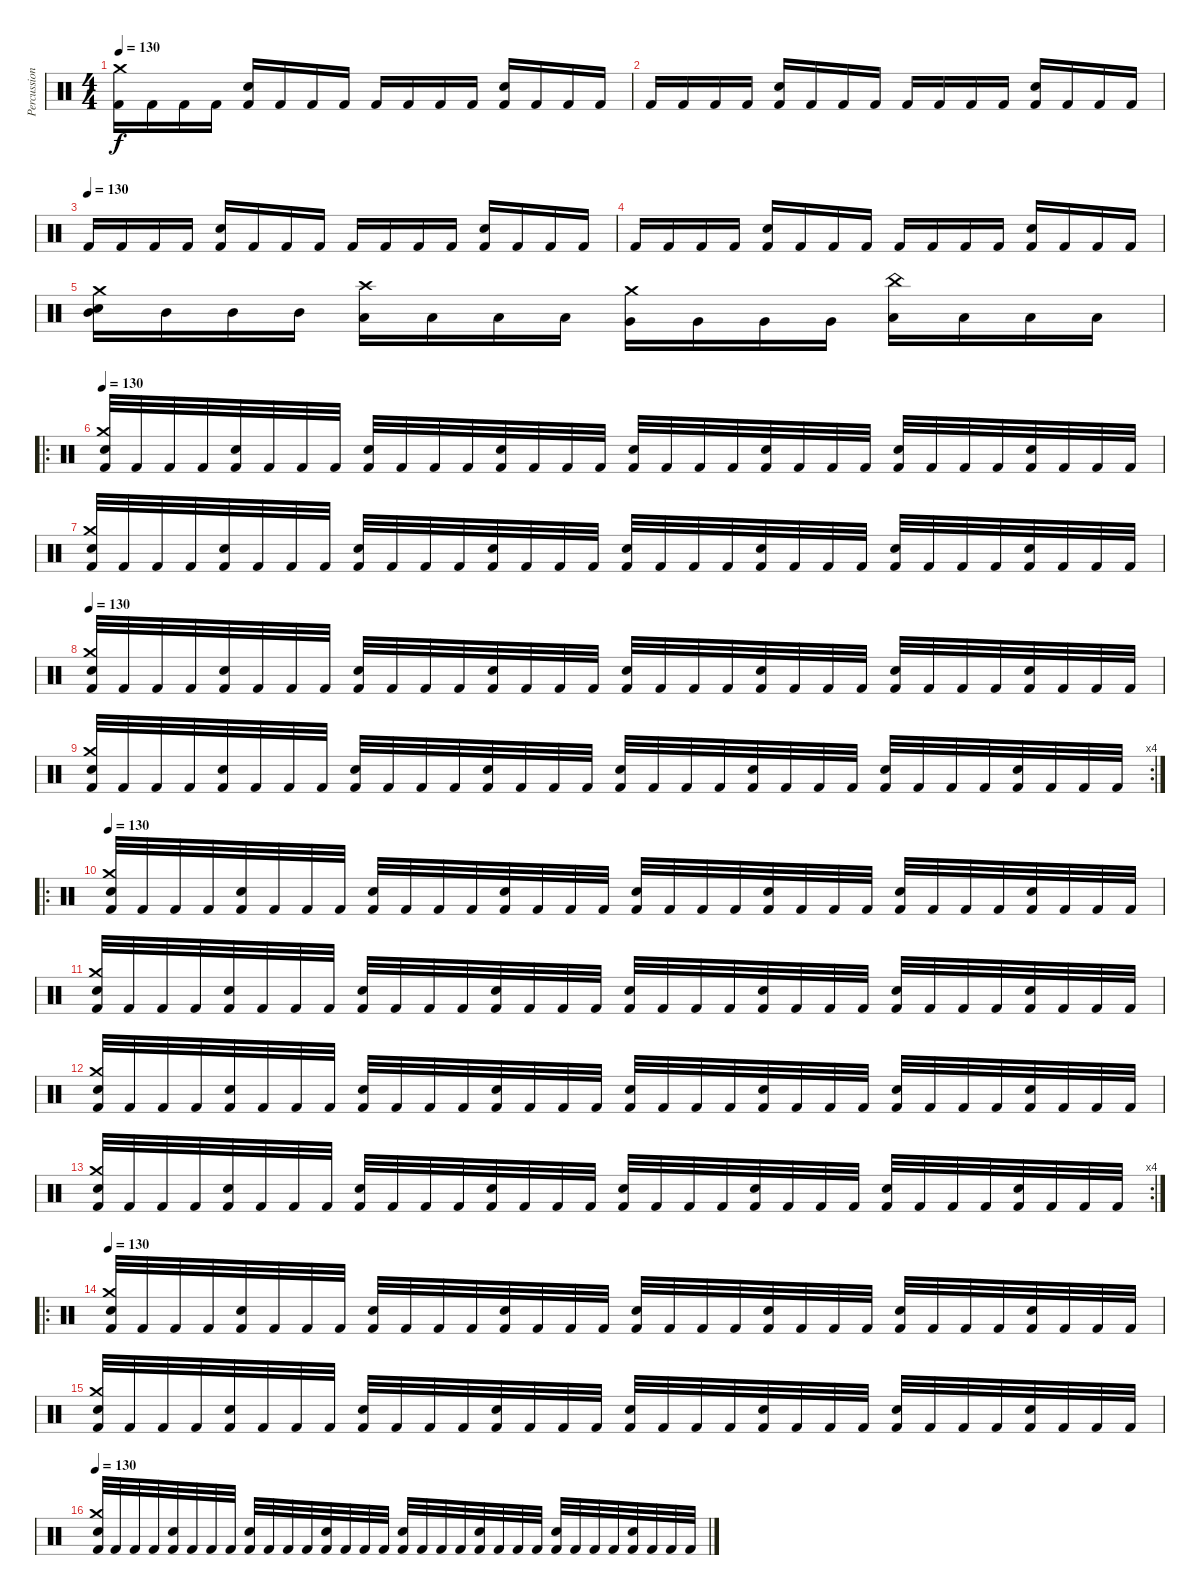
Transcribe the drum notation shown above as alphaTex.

\track ("Percussion" "Percussion") {instrument percussion}
\staff {score}
\articulation defaults
\ts (4 4)
\tempo 130
\clef neutral
\ks c
("Kick (hit) 2" "Crash medium (hit)").16{dy f} "Kick (hit) 2".16 "Kick (hit) 2".16 "Kick (hit) 2".16 ("Kick (hit) 2" "Snare (hit) 2").16 "Kick (hit) 2".16 "Kick (hit) 2".16 "Kick (hit) 2".16 "Kick (hit) 2".16 "Kick (hit) 2".16 "Kick (hit) 2".16 "Kick (hit) 2".16 ("Kick (hit) 2" "Snare (hit) 2").16 "Kick (hit) 2".16 "Kick (hit) 2".16 "Kick (hit) 2".16 |
"Kick (hit) 2".16 "Kick (hit) 2".16 "Kick (hit) 2".16 "Kick (hit) 2".16 ("Kick (hit) 2" "Snare (hit) 2").16 "Kick (hit) 2".16 "Kick (hit) 2".16 "Kick (hit) 2".16 "Kick (hit) 2".16 "Kick (hit) 2".16 "Kick (hit) 2".16 "Kick (hit) 2".16 ("Kick (hit) 2" "Snare (hit) 2").16 "Kick (hit) 2".16 "Kick (hit) 2".16 "Kick (hit) 2".16 |
\tempo (130)
"Kick (hit) 2".16 "Kick (hit) 2".16 "Kick (hit) 2".16 "Kick (hit) 2".16 ("Kick (hit) 2" "Snare (hit) 2").16 "Kick (hit) 2".16 "Kick (hit) 2".16 "Kick (hit) 2".16 "Kick (hit) 2".16 "Kick (hit) 2".16 "Kick (hit) 2".16 "Kick (hit) 2".16 ("Kick (hit) 2" "Snare (hit) 2").16 "Kick (hit) 2".16 "Kick (hit) 2".16 "Kick (hit) 2".16 |
"Kick (hit) 2".16 "Kick (hit) 2".16 "Kick (hit) 2".16 "Kick (hit) 2".16 ("Kick (hit) 2" "Snare (hit) 2").16 "Kick (hit) 2".16 "Kick (hit) 2".16 "Kick (hit) 2".16 "Kick (hit) 2".16 "Kick (hit) 2".16 "Kick (hit) 2".16 "Kick (hit) 2".16 ("Kick (hit) 2" "Snare (hit) 2").16 "Kick (hit) 2".16 "Kick (hit) 2".16 "Kick (hit) 2".16 |
("Mid Tom (hit)" "Crash medium (hit)" "Snare (hit)").16 "Mid Tom (hit)".16 "Mid Tom (hit)".16 "Mid Tom (hit)".16 ("Low Tom (hit)" "Crash high (hit)").16 "Low Tom (hit)".16 "Low Tom (hit)".16 "Low Tom (hit)".16 ("Very Low Tom (hit)" "Crash medium (hit)").16 "Very Low Tom (hit)".16 "Very Low Tom (hit)".16 "Very Low Tom (hit)".16 ("Low Floor Tom (hit)" "China (hit)").16 "Low Floor Tom (hit)".16 "Low Floor Tom (hit)".16 "Low Floor Tom (hit)".16 |
\ro
\tempo 130
("Kick (hit) 2" "Crash medium (hit)" "Snare (hit) 2").32 "Kick (hit) 2".32 "Kick (hit) 2".32 "Kick (hit) 2".32 ("Kick (hit) 2" "Snare (hit) 2").32 "Kick (hit) 2".32 "Kick (hit) 2".32 "Kick (hit) 2".32 ("Kick (hit) 2" "Snare (hit) 2").32 "Kick (hit) 2".32 "Kick (hit) 2".32 "Kick (hit) 2".32 ("Kick (hit) 2" "Snare (hit) 2").32 "Kick (hit) 2".32 "Kick (hit) 2".32 "Kick (hit) 2".32 ("Kick (hit) 2" "Snare (hit) 2").32 "Kick (hit) 2".32 "Kick (hit) 2".32 "Kick (hit) 2".32 ("Kick (hit) 2" "Snare (hit) 2").32 "Kick (hit) 2".32 "Kick (hit) 2".32 "Kick (hit) 2".32 ("Kick (hit) 2" "Snare (hit) 2").32 "Kick (hit) 2".32 "Kick (hit) 2".32 "Kick (hit) 2".32 ("Kick (hit) 2" "Snare (hit) 2").32 "Kick (hit) 2".32 "Kick (hit) 2".32 "Kick (hit) 2".32 |
("Kick (hit) 2" "Crash medium (hit)" "Snare (hit) 2").32 "Kick (hit) 2".32 "Kick (hit) 2".32 "Kick (hit) 2".32 ("Kick (hit) 2" "Snare (hit) 2").32 "Kick (hit) 2".32 "Kick (hit) 2".32 "Kick (hit) 2".32 ("Kick (hit) 2" "Snare (hit) 2").32 "Kick (hit) 2".32 "Kick (hit) 2".32 "Kick (hit) 2".32 ("Kick (hit) 2" "Snare (hit) 2").32 "Kick (hit) 2".32 "Kick (hit) 2".32 "Kick (hit) 2".32 ("Kick (hit) 2" "Snare (hit) 2").32 "Kick (hit) 2".32 "Kick (hit) 2".32 "Kick (hit) 2".32 ("Kick (hit) 2" "Snare (hit) 2").32 "Kick (hit) 2".32 "Kick (hit) 2".32 "Kick (hit) 2".32 ("Kick (hit) 2" "Snare (hit) 2").32 "Kick (hit) 2".32 "Kick (hit) 2".32 "Kick (hit) 2".32 ("Kick (hit) 2" "Snare (hit) 2").32 "Kick (hit) 2".32 "Kick (hit) 2".32 "Kick (hit) 2".32 |
\tempo 130
("Kick (hit) 2" "Crash medium (hit)" "Snare (hit) 2").32 "Kick (hit) 2".32 "Kick (hit) 2".32 "Kick (hit) 2".32 ("Kick (hit) 2" "Snare (hit) 2").32 "Kick (hit) 2".32 "Kick (hit) 2".32 "Kick (hit) 2".32 ("Kick (hit) 2" "Snare (hit) 2").32 "Kick (hit) 2".32 "Kick (hit) 2".32 "Kick (hit) 2".32 ("Kick (hit) 2" "Snare (hit) 2").32 "Kick (hit) 2".32 "Kick (hit) 2".32 "Kick (hit) 2".32 ("Kick (hit) 2" "Snare (hit) 2").32 "Kick (hit) 2".32 "Kick (hit) 2".32 "Kick (hit) 2".32 ("Kick (hit) 2" "Snare (hit) 2").32 "Kick (hit) 2".32 "Kick (hit) 2".32 "Kick (hit) 2".32 ("Kick (hit) 2" "Snare (hit) 2").32 "Kick (hit) 2".32 "Kick (hit) 2".32 "Kick (hit) 2".32 ("Kick (hit) 2" "Snare (hit) 2").32 "Kick (hit) 2".32 "Kick (hit) 2".32 "Kick (hit) 2".32 |
\rc 4
("Kick (hit) 2" "Crash medium (hit)" "Snare (hit) 2").32 "Kick (hit) 2".32 "Kick (hit) 2".32 "Kick (hit) 2".32 ("Kick (hit) 2" "Snare (hit) 2").32 "Kick (hit) 2".32 "Kick (hit) 2".32 "Kick (hit) 2".32 ("Kick (hit) 2" "Snare (hit) 2").32 "Kick (hit) 2".32 "Kick (hit) 2".32 "Kick (hit) 2".32 ("Kick (hit) 2" "Snare (hit) 2").32 "Kick (hit) 2".32 "Kick (hit) 2".32 "Kick (hit) 2".32 ("Kick (hit) 2" "Snare (hit) 2").32 "Kick (hit) 2".32 "Kick (hit) 2".32 "Kick (hit) 2".32 ("Kick (hit) 2" "Snare (hit) 2").32 "Kick (hit) 2".32 "Kick (hit) 2".32 "Kick (hit) 2".32 ("Kick (hit) 2" "Snare (hit) 2").32 "Kick (hit) 2".32 "Kick (hit) 2".32 "Kick (hit) 2".32 ("Kick (hit) 2" "Snare (hit) 2").32 "Kick (hit) 2".32 "Kick (hit) 2".32 "Kick (hit) 2".32 |
\ro
\tempo 130
("Kick (hit) 2" "Crash medium (hit)" "Snare (hit) 2").32 "Kick (hit) 2".32 "Kick (hit) 2".32 "Kick (hit) 2".32 ("Kick (hit) 2" "Snare (hit) 2").32 "Kick (hit) 2".32 "Kick (hit) 2".32 "Kick (hit) 2".32 ("Kick (hit) 2" "Snare (hit) 2").32 "Kick (hit) 2".32 "Kick (hit) 2".32 "Kick (hit) 2".32 ("Kick (hit) 2" "Snare (hit) 2").32 "Kick (hit) 2".32 "Kick (hit) 2".32 "Kick (hit) 2".32 ("Kick (hit) 2" "Snare (hit) 2").32 "Kick (hit) 2".32 "Kick (hit) 2".32 "Kick (hit) 2".32 ("Kick (hit) 2" "Snare (hit) 2").32 "Kick (hit) 2".32 "Kick (hit) 2".32 "Kick (hit) 2".32 ("Kick (hit) 2" "Snare (hit) 2").32 "Kick (hit) 2".32 "Kick (hit) 2".32 "Kick (hit) 2".32 ("Kick (hit) 2" "Snare (hit) 2").32 "Kick (hit) 2".32 "Kick (hit) 2".32 "Kick (hit) 2".32 |
("Kick (hit) 2" "Crash medium (hit)" "Snare (hit) 2").32 "Kick (hit) 2".32 "Kick (hit) 2".32 "Kick (hit) 2".32 ("Kick (hit) 2" "Snare (hit) 2").32 "Kick (hit) 2".32 "Kick (hit) 2".32 "Kick (hit) 2".32 ("Kick (hit) 2" "Snare (hit) 2").32 "Kick (hit) 2".32 "Kick (hit) 2".32 "Kick (hit) 2".32 ("Kick (hit) 2" "Snare (hit) 2").32 "Kick (hit) 2".32 "Kick (hit) 2".32 "Kick (hit) 2".32 ("Kick (hit) 2" "Snare (hit) 2").32 "Kick (hit) 2".32 "Kick (hit) 2".32 "Kick (hit) 2".32 ("Kick (hit) 2" "Snare (hit) 2").32 "Kick (hit) 2".32 "Kick (hit) 2".32 "Kick (hit) 2".32 ("Kick (hit) 2" "Snare (hit) 2").32 "Kick (hit) 2".32 "Kick (hit) 2".32 "Kick (hit) 2".32 ("Kick (hit) 2" "Snare (hit) 2").32 "Kick (hit) 2".32 "Kick (hit) 2".32 "Kick (hit) 2".32 |
("Kick (hit) 2" "Crash medium (hit)" "Snare (hit) 2").32 "Kick (hit) 2".32 "Kick (hit) 2".32 "Kick (hit) 2".32 ("Kick (hit) 2" "Snare (hit) 2").32 "Kick (hit) 2".32 "Kick (hit) 2".32 "Kick (hit) 2".32 ("Kick (hit) 2" "Snare (hit) 2").32 "Kick (hit) 2".32 "Kick (hit) 2".32 "Kick (hit) 2".32 ("Kick (hit) 2" "Snare (hit) 2").32 "Kick (hit) 2".32 "Kick (hit) 2".32 "Kick (hit) 2".32 ("Kick (hit) 2" "Snare (hit) 2").32 "Kick (hit) 2".32 "Kick (hit) 2".32 "Kick (hit) 2".32 ("Kick (hit) 2" "Snare (hit) 2").32 "Kick (hit) 2".32 "Kick (hit) 2".32 "Kick (hit) 2".32 ("Kick (hit) 2" "Snare (hit) 2").32 "Kick (hit) 2".32 "Kick (hit) 2".32 "Kick (hit) 2".32 ("Kick (hit) 2" "Snare (hit) 2").32 "Kick (hit) 2".32 "Kick (hit) 2".32 "Kick (hit) 2".32 |
\rc 4
("Kick (hit) 2" "Crash medium (hit)" "Snare (hit) 2").32 "Kick (hit) 2".32 "Kick (hit) 2".32 "Kick (hit) 2".32 ("Kick (hit) 2" "Snare (hit) 2").32 "Kick (hit) 2".32 "Kick (hit) 2".32 "Kick (hit) 2".32 ("Kick (hit) 2" "Snare (hit) 2").32 "Kick (hit) 2".32 "Kick (hit) 2".32 "Kick (hit) 2".32 ("Kick (hit) 2" "Snare (hit) 2").32 "Kick (hit) 2".32 "Kick (hit) 2".32 "Kick (hit) 2".32 ("Kick (hit) 2" "Snare (hit) 2").32 "Kick (hit) 2".32 "Kick (hit) 2".32 "Kick (hit) 2".32 ("Kick (hit) 2" "Snare (hit) 2").32 "Kick (hit) 2".32 "Kick (hit) 2".32 "Kick (hit) 2".32 ("Kick (hit) 2" "Snare (hit) 2").32 "Kick (hit) 2".32 "Kick (hit) 2".32 "Kick (hit) 2".32 ("Kick (hit) 2" "Snare (hit) 2").32 "Kick (hit) 2".32 "Kick (hit) 2".32 "Kick (hit) 2".32 |
\ro
\tempo 130
("Kick (hit) 2" "Crash medium (hit)" "Snare (hit) 2").32 "Kick (hit) 2".32 "Kick (hit) 2".32 "Kick (hit) 2".32 ("Kick (hit) 2" "Snare (hit) 2").32 "Kick (hit) 2".32 "Kick (hit) 2".32 "Kick (hit) 2".32 ("Kick (hit) 2" "Snare (hit) 2").32 "Kick (hit) 2".32 "Kick (hit) 2".32 "Kick (hit) 2".32 ("Kick (hit) 2" "Snare (hit) 2").32 "Kick (hit) 2".32 "Kick (hit) 2".32 "Kick (hit) 2".32 ("Kick (hit) 2" "Snare (hit) 2").32 "Kick (hit) 2".32 "Kick (hit) 2".32 "Kick (hit) 2".32 ("Kick (hit) 2" "Snare (hit) 2").32 "Kick (hit) 2".32 "Kick (hit) 2".32 "Kick (hit) 2".32 ("Kick (hit) 2" "Snare (hit) 2").32 "Kick (hit) 2".32 "Kick (hit) 2".32 "Kick (hit) 2".32 ("Kick (hit) 2" "Snare (hit) 2").32 "Kick (hit) 2".32 "Kick (hit) 2".32 "Kick (hit) 2".32 |
("Kick (hit) 2" "Crash medium (hit)" "Snare (hit) 2").32 "Kick (hit) 2".32 "Kick (hit) 2".32 "Kick (hit) 2".32 ("Kick (hit) 2" "Snare (hit) 2").32 "Kick (hit) 2".32 "Kick (hit) 2".32 "Kick (hit) 2".32 ("Kick (hit) 2" "Snare (hit) 2").32 "Kick (hit) 2".32 "Kick (hit) 2".32 "Kick (hit) 2".32 ("Kick (hit) 2" "Snare (hit) 2").32 "Kick (hit) 2".32 "Kick (hit) 2".32 "Kick (hit) 2".32 ("Kick (hit) 2" "Snare (hit) 2").32 "Kick (hit) 2".32 "Kick (hit) 2".32 "Kick (hit) 2".32 ("Kick (hit) 2" "Snare (hit) 2").32 "Kick (hit) 2".32 "Kick (hit) 2".32 "Kick (hit) 2".32 ("Kick (hit) 2" "Snare (hit) 2").32 "Kick (hit) 2".32 "Kick (hit) 2".32 "Kick (hit) 2".32 ("Kick (hit) 2" "Snare (hit) 2").32 "Kick (hit) 2".32 "Kick (hit) 2".32 "Kick (hit) 2".32 |
\tempo 130
("Kick (hit) 2" "Crash medium (hit)" "Snare (hit) 2").32 "Kick (hit) 2".32 "Kick (hit) 2".32 "Kick (hit) 2".32 ("Kick (hit) 2" "Snare (hit) 2").32 "Kick (hit) 2".32 "Kick (hit) 2".32 "Kick (hit) 2".32 ("Kick (hit) 2" "Snare (hit) 2").32 "Kick (hit) 2".32 "Kick (hit) 2".32 "Kick (hit) 2".32 ("Kick (hit) 2" "Snare (hit) 2").32 "Kick (hit) 2".32 "Kick (hit) 2".32 "Kick (hit) 2".32 ("Kick (hit) 2" "Snare (hit) 2").32 "Kick (hit) 2".32 "Kick (hit) 2".32 "Kick (hit) 2".32 ("Kick (hit) 2" "Snare (hit) 2").32 "Kick (hit) 2".32 "Kick (hit) 2".32 "Kick (hit) 2".32 ("Kick (hit) 2" "Snare (hit) 2").32 "Kick (hit) 2".32 "Kick (hit) 2".32 "Kick (hit) 2".32 ("Kick (hit) 2" "Snare (hit) 2").32 "Kick (hit) 2".32 "Kick (hit) 2".32 "Kick (hit) 2".32
